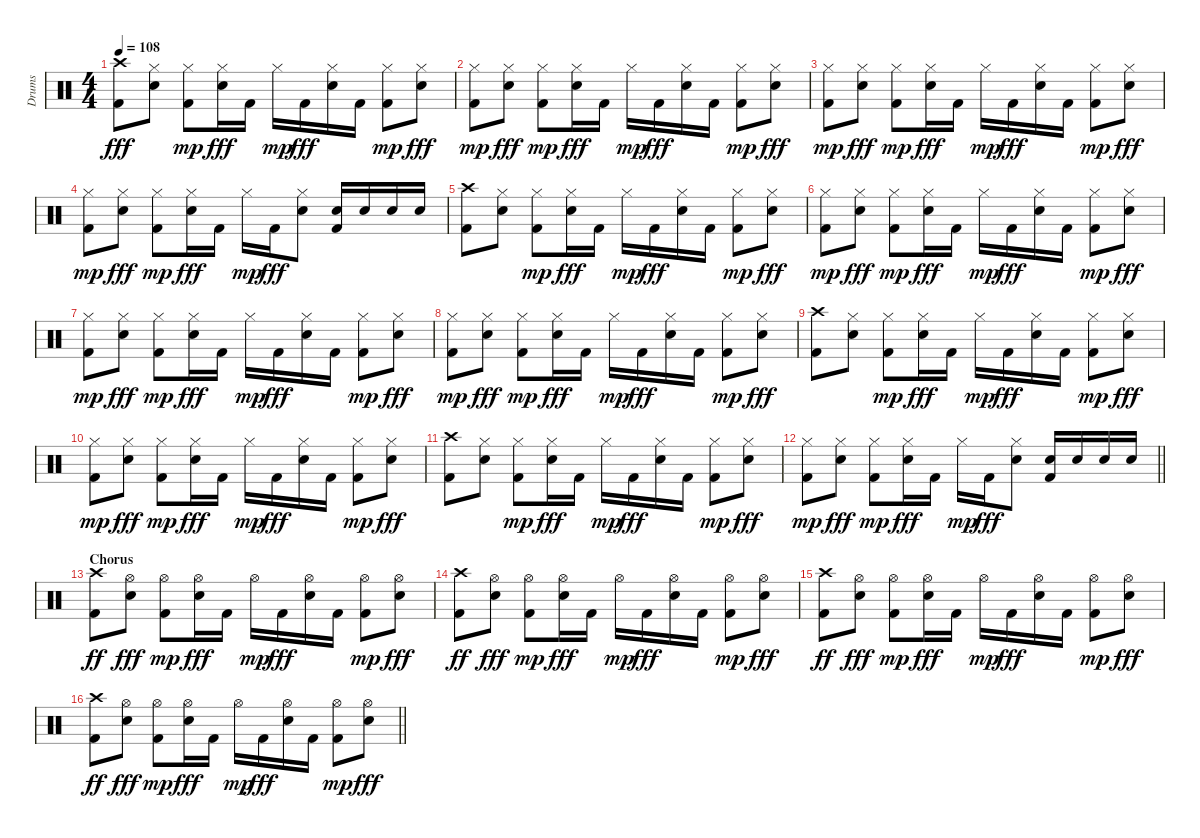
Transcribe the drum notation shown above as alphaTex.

\track ("Drums" "Drums") {instrument percussion}
\staff {score}
\articulation defaults
\ts (4 4)
\tempo 108
\clef neutral
\ks c
("Kick (hit) 2" "Crash high (hit)").8{dy fff} ("Snare (hit) 2" "Hi-Hat (closed)").8 ("Kick (hit) 2" "Hi-Hat (closed)").8{dy mp} ("Snare (hit) 2" "Hi-Hat (closed)").16{dy fff} "Kick (hit) 2".16 "Hi-Hat (closed)".16{dy mp} "Kick (hit) 2".16{dy fff} ("Snare (hit) 2" "Hi-Hat (closed)").16 "Kick (hit) 2".16 ("Kick (hit) 2" "Hi-Hat (closed)").8{dy mp} ("Snare (hit) 2" "Hi-Hat (closed)").8{dy fff} |
("Kick (hit) 2" "Hi-Hat (closed)").8{dy mp} ("Snare (hit) 2" "Hi-Hat (closed)").8{dy fff} ("Kick (hit) 2" "Hi-Hat (closed)").8{dy mp} ("Snare (hit) 2" "Hi-Hat (closed)").16{dy fff} "Kick (hit) 2".16 "Hi-Hat (closed)".16{dy mp} "Kick (hit) 2".16{dy fff} ("Snare (hit) 2" "Hi-Hat (closed)").16 "Kick (hit) 2".16 ("Kick (hit) 2" "Hi-Hat (closed)").8{dy mp} ("Snare (hit) 2" "Hi-Hat (closed)").8{dy fff} |
("Kick (hit) 2" "Hi-Hat (closed)").8{dy mp} ("Snare (hit) 2" "Hi-Hat (closed)").8{dy fff} ("Kick (hit) 2" "Hi-Hat (closed)").8{dy mp} ("Snare (hit) 2" "Hi-Hat (closed)").16{dy fff} "Kick (hit) 2".16 "Hi-Hat (closed)".16{dy mp} "Kick (hit) 2".16{dy fff} ("Snare (hit) 2" "Hi-Hat (closed)").16 "Kick (hit) 2".16 ("Kick (hit) 2" "Hi-Hat (closed)").8{dy mp} ("Snare (hit) 2" "Hi-Hat (closed)").8{dy fff} |
("Kick (hit) 2" "Hi-Hat (closed)").8{dy mp} ("Snare (hit) 2" "Hi-Hat (closed)").8{dy fff} ("Kick (hit) 2" "Hi-Hat (closed)").8{dy mp} ("Snare (hit) 2" "Hi-Hat (closed)").16{dy fff} "Kick (hit) 2".16 "Hi-Hat (closed)".16{dy mp} "Kick (hit) 2".16{dy fff} ("Snare (hit) 2" "Hi-Hat (closed)").8 ("Snare (hit) 2" "Kick (hit) 2").16 "Snare (hit) 2".16 "Snare (hit) 2".16 "Snare (hit) 2".16 |
("Kick (hit) 2" "Crash high (hit)").8 ("Snare (hit) 2" "Hi-Hat (closed)").8 ("Kick (hit) 2" "Hi-Hat (closed)").8{dy mp} ("Snare (hit) 2" "Hi-Hat (closed)").16{dy fff} "Kick (hit) 2".16 "Hi-Hat (closed)".16{dy mp} "Kick (hit) 2".16{dy fff} ("Snare (hit) 2" "Hi-Hat (closed)").16 "Kick (hit) 2".16 ("Kick (hit) 2" "Hi-Hat (closed)").8{dy mp} ("Snare (hit) 2" "Hi-Hat (closed)").8{dy fff} |
("Kick (hit) 2" "Hi-Hat (closed)").8{dy mp} ("Snare (hit) 2" "Hi-Hat (closed)").8{dy fff} ("Kick (hit) 2" "Hi-Hat (closed)").8{dy mp} ("Snare (hit) 2" "Hi-Hat (closed)").16{dy fff} "Kick (hit) 2".16 "Hi-Hat (closed)".16{dy mp} "Kick (hit) 2".16{dy fff} ("Snare (hit) 2" "Hi-Hat (closed)").16 "Kick (hit) 2".16 ("Kick (hit) 2" "Hi-Hat (closed)").8{dy mp} ("Snare (hit) 2" "Hi-Hat (closed)").8{dy fff} |
("Kick (hit) 2" "Hi-Hat (closed)").8{dy mp} ("Snare (hit) 2" "Hi-Hat (closed)").8{dy fff} ("Kick (hit) 2" "Hi-Hat (closed)").8{dy mp} ("Snare (hit) 2" "Hi-Hat (closed)").16{dy fff} "Kick (hit) 2".16 "Hi-Hat (closed)".16{dy mp} "Kick (hit) 2".16{dy fff} ("Snare (hit) 2" "Hi-Hat (closed)").16 "Kick (hit) 2".16 ("Kick (hit) 2" "Hi-Hat (closed)").8{dy mp} ("Snare (hit) 2" "Hi-Hat (closed)").8{dy fff} |
("Kick (hit) 2" "Hi-Hat (closed)").8{dy mp} ("Snare (hit) 2" "Hi-Hat (closed)").8{dy fff} ("Kick (hit) 2" "Hi-Hat (closed)").8{dy mp} ("Snare (hit) 2" "Hi-Hat (closed)").16{dy fff} "Kick (hit) 2".16 "Hi-Hat (closed)".16{dy mp} "Kick (hit) 2".16{dy fff} ("Snare (hit) 2" "Hi-Hat (closed)").16 "Kick (hit) 2".16 ("Kick (hit) 2" "Hi-Hat (closed)").8{dy mp} ("Snare (hit) 2" "Hi-Hat (closed)").8{dy fff} |
("Kick (hit) 2" "Crash high (hit)").8 ("Snare (hit) 2" "Hi-Hat (closed)").8 ("Kick (hit) 2" "Hi-Hat (closed)").8{dy mp} ("Snare (hit) 2" "Hi-Hat (closed)").16{dy fff} "Kick (hit) 2".16 "Hi-Hat (closed)".16{dy mp} "Kick (hit) 2".16{dy fff} ("Snare (hit) 2" "Hi-Hat (closed)").16 "Kick (hit) 2".16 ("Kick (hit) 2" "Hi-Hat (closed)").8{dy mp} ("Snare (hit) 2" "Hi-Hat (closed)").8{dy fff} |
("Kick (hit) 2" "Hi-Hat (closed)").8{dy mp} ("Snare (hit) 2" "Hi-Hat (closed)").8{dy fff} ("Kick (hit) 2" "Hi-Hat (closed)").8{dy mp} ("Snare (hit) 2" "Hi-Hat (closed)").16{dy fff} "Kick (hit) 2".16 "Hi-Hat (closed)".16{dy mp} "Kick (hit) 2".16{dy fff} ("Snare (hit) 2" "Hi-Hat (closed)").16 "Kick (hit) 2".16 ("Kick (hit) 2" "Hi-Hat (closed)").8{dy mp} ("Snare (hit) 2" "Hi-Hat (closed)").8{dy fff} |
("Kick (hit) 2" "Crash high (hit)").8 ("Snare (hit) 2" "Hi-Hat (closed)").8 ("Kick (hit) 2" "Hi-Hat (closed)").8{dy mp} ("Snare (hit) 2" "Hi-Hat (closed)").16{dy fff} "Kick (hit) 2".16 "Hi-Hat (closed)".16{dy mp} "Kick (hit) 2".16{dy fff} ("Snare (hit) 2" "Hi-Hat (closed)").16 "Kick (hit) 2".16 ("Kick (hit) 2" "Hi-Hat (closed)").8{dy mp} ("Snare (hit) 2" "Hi-Hat (closed)").8{dy fff} |
\barLineRight lightlight
("Kick (hit) 2" "Hi-Hat (closed)").8{dy mp} ("Snare (hit) 2" "Hi-Hat (closed)").8{dy fff} ("Kick (hit) 2" "Hi-Hat (closed)").8{dy mp} ("Snare (hit) 2" "Hi-Hat (closed)").16{dy fff} "Kick (hit) 2".16 "Hi-Hat (closed)".16{dy mp} "Kick (hit) 2".16{dy fff} ("Snare (hit) 2" "Hi-Hat (closed)").8 ("Snare (hit) 2" "Kick (hit) 2").16 "Snare (hit) 2".16 "Snare (hit) 2".16 "Snare (hit) 2".16 |
\section ("" "Chorus")
("Kick (hit) 2" "Crash high (hit)").8{dy ff} ("Snare (hit) 2" "Hi-Hat (open)").8{dy fff} ("Kick (hit) 2" "Hi-Hat (open)").8{dy mp} ("Snare (hit) 2" "Hi-Hat (open)").16{dy fff} "Kick (hit) 2".16 "Hi-Hat (open)".16{dy mp} "Kick (hit) 2".16{dy fff} ("Snare (hit) 2" "Hi-Hat (open)").16 "Kick (hit) 2".16 ("Kick (hit) 2" "Hi-Hat (open)").8{dy mp} ("Snare (hit) 2" "Hi-Hat (open)").8{dy fff} |
("Kick (hit) 2" "Crash high (hit)").8{dy ff} ("Snare (hit) 2" "Hi-Hat (open)").8{dy fff} ("Kick (hit) 2" "Hi-Hat (open)").8{dy mp} ("Snare (hit) 2" "Hi-Hat (open)").16{dy fff} "Kick (hit) 2".16 "Hi-Hat (open)".16{dy mp} "Kick (hit) 2".16{dy fff} ("Snare (hit) 2" "Hi-Hat (open)").16 "Kick (hit) 2".16 ("Kick (hit) 2" "Hi-Hat (open)").8{dy mp} ("Snare (hit) 2" "Hi-Hat (open)").8{dy fff} |
("Kick (hit) 2" "Crash high (hit)").8{dy ff} ("Snare (hit) 2" "Hi-Hat (open)").8{dy fff} ("Kick (hit) 2" "Hi-Hat (open)").8{dy mp} ("Snare (hit) 2" "Hi-Hat (open)").16{dy fff} "Kick (hit) 2".16 "Hi-Hat (open)".16{dy mp} "Kick (hit) 2".16{dy fff} ("Snare (hit) 2" "Hi-Hat (open)").16 "Kick (hit) 2".16 ("Kick (hit) 2" "Hi-Hat (open)").8{dy mp} ("Snare (hit) 2" "Hi-Hat (open)").8{dy fff} |
\barLineRight lightlight
("Kick (hit) 2" "Crash high (hit)").8{dy ff} ("Snare (hit) 2" "Hi-Hat (open)").8{dy fff} ("Kick (hit) 2" "Hi-Hat (open)").8{dy mp} ("Snare (hit) 2" "Hi-Hat (open)").16{dy fff} "Kick (hit) 2".16 "Hi-Hat (open)".16{dy mp} "Kick (hit) 2".16{dy fff} ("Snare (hit) 2" "Hi-Hat (open)").16 "Kick (hit) 2".16 ("Kick (hit) 2" "Hi-Hat (open)").8{dy mp} ("Snare (hit) 2" "Hi-Hat (open)").8{dy fff}
